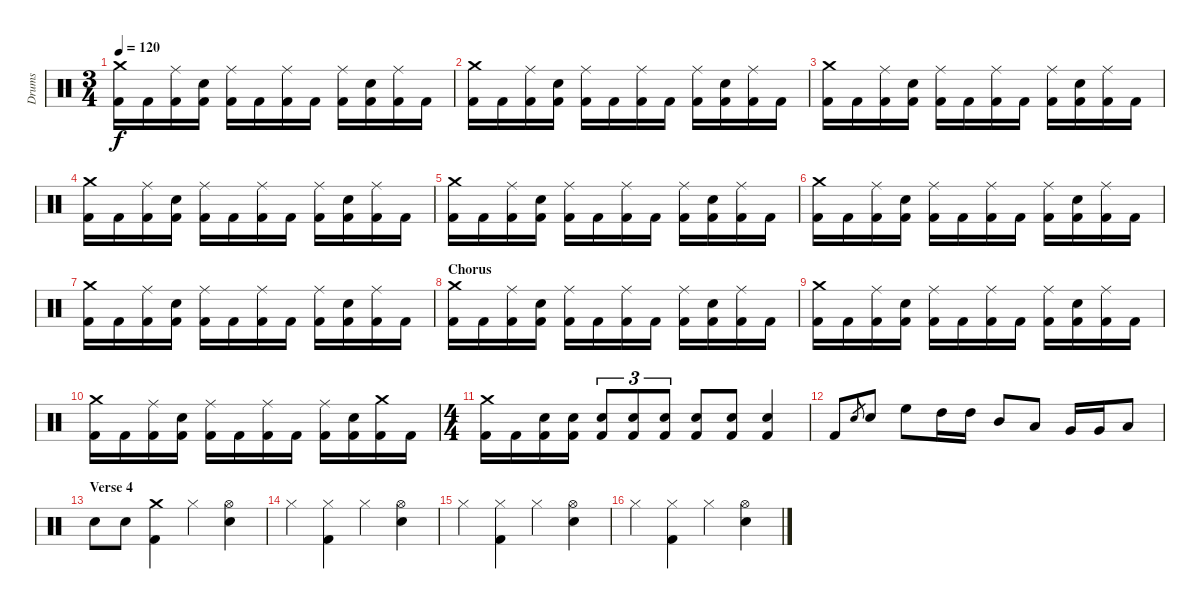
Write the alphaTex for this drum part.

\track ("Drums" "Drums") {instrument percussion}
\staff {score}
\articulation defaults
\ts (3 4)
\tempo 120
\clef neutral
\ks c
("Crash medium (hit)" "Kick (hit) 2").16{dy f} "Kick (hit) 2".16 ("Ride (middle)" "Kick (hit) 2").16 ("Electric Snare (hit)" "Kick (hit) 2").16 ("Ride (middle)" "Kick (hit) 2").16 "Kick (hit) 2".16 ("Ride (middle)" "Kick (hit) 2").16 "Kick (hit) 2".16 ("Ride (middle)" "Kick (hit) 2").16 ("Electric Snare (hit)" "Kick (hit) 2").16 ("Ride (middle)" "Kick (hit) 2").16 "Kick (hit) 2".16 |
("Crash medium (hit)" "Kick (hit) 2").16 "Kick (hit) 2".16 ("Ride (middle)" "Kick (hit) 2").16 ("Electric Snare (hit)" "Kick (hit) 2").16 ("Ride (middle)" "Kick (hit) 2").16 "Kick (hit) 2".16 ("Ride (middle)" "Kick (hit) 2").16 "Kick (hit) 2".16 ("Ride (middle)" "Kick (hit) 2").16 ("Electric Snare (hit)" "Kick (hit) 2").16 ("Ride (middle)" "Kick (hit) 2").16 "Kick (hit) 2".16 |
("Crash medium (hit)" "Kick (hit) 2").16 "Kick (hit) 2".16 ("Ride (middle)" "Kick (hit) 2").16 ("Electric Snare (hit)" "Kick (hit) 2").16 ("Ride (middle)" "Kick (hit) 2").16 "Kick (hit) 2".16 ("Ride (middle)" "Kick (hit) 2").16 "Kick (hit) 2".16 ("Ride (middle)" "Kick (hit) 2").16 ("Electric Snare (hit)" "Kick (hit) 2").16 ("Ride (middle)" "Kick (hit) 2").16 "Kick (hit) 2".16 |
("Crash medium (hit)" "Kick (hit) 2").16 "Kick (hit) 2".16 ("Ride (middle)" "Kick (hit) 2").16 ("Electric Snare (hit)" "Kick (hit) 2").16 ("Ride (middle)" "Kick (hit) 2").16 "Kick (hit) 2".16 ("Ride (middle)" "Kick (hit) 2").16 "Kick (hit) 2".16 ("Ride (middle)" "Kick (hit) 2").16 ("Electric Snare (hit)" "Kick (hit) 2").16 ("Ride (middle)" "Kick (hit) 2").16 "Kick (hit) 2".16 |
("Crash medium (hit)" "Kick (hit) 2").16 "Kick (hit) 2".16 ("Ride (middle)" "Kick (hit) 2").16 ("Electric Snare (hit)" "Kick (hit) 2").16 ("Ride (middle)" "Kick (hit) 2").16 "Kick (hit) 2".16 ("Ride (middle)" "Kick (hit) 2").16 "Kick (hit) 2".16 ("Ride (middle)" "Kick (hit) 2").16 ("Electric Snare (hit)" "Kick (hit) 2").16 ("Ride (middle)" "Kick (hit) 2").16 "Kick (hit) 2".16 |
("Crash medium (hit)" "Kick (hit) 2").16 "Kick (hit) 2".16 ("Ride (middle)" "Kick (hit) 2").16 ("Electric Snare (hit)" "Kick (hit) 2").16 ("Ride (middle)" "Kick (hit) 2").16 "Kick (hit) 2".16 ("Ride (middle)" "Kick (hit) 2").16 "Kick (hit) 2".16 ("Ride (middle)" "Kick (hit) 2").16 ("Electric Snare (hit)" "Kick (hit) 2").16 ("Ride (middle)" "Kick (hit) 2").16 "Kick (hit) 2".16 |
("Crash medium (hit)" "Kick (hit) 2").16 "Kick (hit) 2".16 ("Ride (middle)" "Kick (hit) 2").16 ("Electric Snare (hit)" "Kick (hit) 2").16 ("Ride (middle)" "Kick (hit) 2").16 "Kick (hit) 2".16 ("Ride (middle)" "Kick (hit) 2").16 "Kick (hit) 2".16 ("Ride (middle)" "Kick (hit) 2").16 ("Electric Snare (hit)" "Kick (hit) 2").16 ("Ride (middle)" "Kick (hit) 2").16 "Kick (hit) 2".16 |
\section ("" "Chorus")
("Crash medium (hit)" "Kick (hit) 2").16 "Kick (hit) 2".16 ("Ride (middle)" "Kick (hit) 2").16 ("Electric Snare (hit)" "Kick (hit) 2").16 ("Ride (middle)" "Kick (hit) 2").16 "Kick (hit) 2".16 ("Ride (middle)" "Kick (hit) 2").16 "Kick (hit) 2".16 ("Ride (middle)" "Kick (hit) 2").16 ("Electric Snare (hit)" "Kick (hit) 2").16 ("Ride (middle)" "Kick (hit) 2").16 "Kick (hit) 2".16 |
("Crash medium (hit)" "Kick (hit) 2").16 "Kick (hit) 2".16 ("Ride (middle)" "Kick (hit) 2").16 ("Electric Snare (hit)" "Kick (hit) 2").16 ("Ride (middle)" "Kick (hit) 2").16 "Kick (hit) 2".16 ("Ride (middle)" "Kick (hit) 2").16 "Kick (hit) 2".16 ("Ride (middle)" "Kick (hit) 2").16 ("Electric Snare (hit)" "Kick (hit) 2").16 ("Ride (middle)" "Kick (hit) 2").16 "Kick (hit) 2".16 |
("Crash medium (hit)" "Kick (hit) 2").16 "Kick (hit) 2".16 ("Ride (middle)" "Kick (hit) 2").16 ("Electric Snare (hit)" "Kick (hit) 2").16 ("Ride (middle)" "Kick (hit) 2").16 "Kick (hit) 2".16 ("Ride (middle)" "Kick (hit) 2").16 "Kick (hit) 2".16 ("Ride (middle)" "Kick (hit) 2").16 ("Electric Snare (hit)" "Kick (hit) 2").16 ("Crash medium (hit)" "Kick (hit) 2").16 "Kick (hit) 2".16 |
\ts (4 4)
("Crash medium (hit)" "Kick (hit) 2").16 "Kick (hit) 2".16 ("Electric Snare (hit)" "Kick (hit) 2").16 ("Electric Snare (hit)" "Kick (hit) 2").16 ("Electric Snare (hit)" "Kick (hit) 2").8{tu (3 2)} ("Electric Snare (hit)" "Kick (hit) 2").8{tu (3 2)} ("Electric Snare (hit)" "Kick (hit) 2").8{tu (3 2)} ("Electric Snare (hit)" "Kick (hit) 2").8 ("Electric Snare (hit)" "Kick (hit) 2").8 ("Electric Snare (hit)" "Kick (hit) 2").4 |
"Kick (hit) 2".8 "Electric Snare (hit)".8{gr} "Electric Snare (hit)".8 "High Floor Tom (hit)".8 "High Tom (hit)".16 "High Tom (hit)".16 "Mid Tom (hit)".8 "Low Tom (hit)".8 "Very Low Tom (hit)".16 "Very Low Tom (hit)".16 "Low Floor Tom (hit)".8 |
\section ("" "Verse 4")
"Electric Snare (hit)".8 "Electric Snare (hit)".8 ("Crash medium (hit)" "Kick (hit) 2").4 "Hi-Hat (closed)".4 ("Hi-Hat (open)" "Electric Snare (hit)").4 |
"Hi-Hat (closed)".4 ("Hi-Hat (closed)" "Kick (hit) 2").4 "Hi-Hat (closed)".4 ("Hi-Hat (open)" "Electric Snare (hit)").4 |
"Hi-Hat (closed)".4 ("Hi-Hat (closed)" "Kick (hit) 2").4 "Hi-Hat (closed)".4 ("Hi-Hat (open)" "Electric Snare (hit)").4 |
"Hi-Hat (closed)".4 ("Hi-Hat (closed)" "Kick (hit) 2").4 "Hi-Hat (closed)".4 ("Hi-Hat (open)" "Electric Snare (hit)").4
